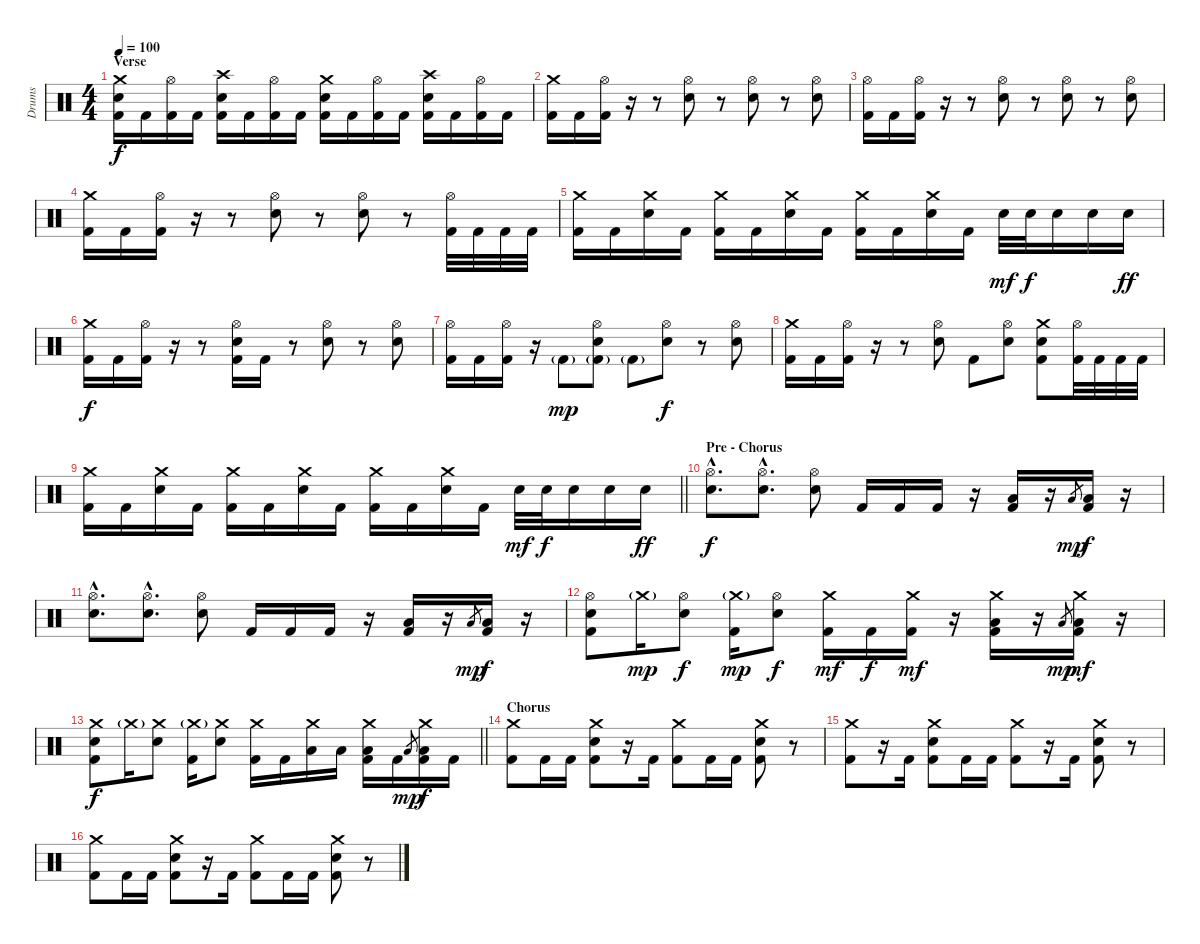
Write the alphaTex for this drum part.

\track ("Drums" "Drums") {instrument percussion}
\staff {score}
\articulation defaults
\ts (4 4)
\section ("" "Verse")
\tempo 100
\clef neutral
\ks c
("Crash medium (hit)" "Electric Snare (hit)" "Kick (hit) 2").16{dy f} "Kick (hit) 2".16 ("Hi-Hat (open)" "Kick (hit) 2").16 "Kick (hit) 2".16 ("Crash high (hit)" "Electric Snare (hit)" "Kick (hit) 2").16 "Kick (hit) 2".16 ("Hi-Hat (open)" "Kick (hit) 2").16 "Kick (hit) 2".16 ("Crash medium (hit)" "Electric Snare (hit)" "Kick (hit) 2").16 "Kick (hit) 2".16 ("Hi-Hat (open)" "Kick (hit) 2").16 "Kick (hit) 2".16 ("Crash high (hit)" "Electric Snare (hit)" "Kick (hit) 2").16 "Kick (hit) 2".16 ("Hi-Hat (open)" "Kick (hit) 2").16 "Kick (hit) 2".16 |
("Crash medium (hit)" "Kick (hit) 2").16 "Kick (hit) 2".16 ("Hi-Hat (open)" "Kick (hit) 2").16 r.16 r.8 ("Hi-Hat (open)" "Electric Snare (hit)").8 r.8 ("Hi-Hat (open)" "Electric Snare (hit)").8 r.8 ("Hi-Hat (open)" "Electric Snare (hit)").8 |
("Hi-Hat (open)" "Kick (hit) 2").16 "Kick (hit) 2".16 ("Hi-Hat (open)" "Kick (hit) 2").16 r.16 r.8 ("Hi-Hat (open)" "Electric Snare (hit)").8 r.8 ("Hi-Hat (open)" "Electric Snare (hit)").8 r.8 ("Hi-Hat (open)" "Electric Snare (hit)").8 |
("Crash medium (hit)" "Kick (hit) 2").16 "Kick (hit) 2".16 ("Hi-Hat (open)" "Kick (hit) 2").16 r.16 r.8 ("Hi-Hat (open)" "Electric Snare (hit)").8 r.8 ("Hi-Hat (open)" "Electric Snare (hit)").8 r.8 ("Hi-Hat (open)" "Kick (hit) 2").32 "Kick (hit) 2".32 "Kick (hit) 2".32 "Kick (hit) 2".32 |
("Crash medium (hit)" "Kick (hit) 2").16 "Kick (hit) 2".16 ("Crash medium (hit)" "Electric Snare (hit)").16 "Kick (hit) 2".16 ("Crash medium (hit)" "Kick (hit) 2").16 "Kick (hit) 2".16 ("Crash medium (hit)" "Electric Snare (hit)").16 "Kick (hit) 2".16 ("Crash medium (hit)" "Kick (hit) 2").16 "Kick (hit) 2".16 ("Crash medium (hit)" "Electric Snare (hit)").16 "Kick (hit) 2".16 "Electric Snare (hit)".32{dy mf} "Electric Snare (hit)".32{dy f} "Electric Snare (hit)".16 "Electric Snare (hit)".16 "Electric Snare (hit)".16{dy ff} |
("Crash medium (hit)" "Kick (hit) 2").16{dy f} "Kick (hit) 2".16 ("Hi-Hat (open)" "Kick (hit) 2").16 r.16 r.8 ("Hi-Hat (open)" "Electric Snare (hit)" "Kick (hit) 2").16 "Kick (hit) 2".16 r.8 ("Hi-Hat (open)" "Electric Snare (hit)").8 r.8 ("Hi-Hat (open)" "Electric Snare (hit)").8 |
("Hi-Hat (open)" "Kick (hit) 2").16 "Kick (hit) 2".16 ("Hi-Hat (open)" "Kick (hit) 2").16 r.16 "Kick (hit) 2"{g}.8{dy mp} ("Hi-Hat (open)" "Electric Snare (hit)" "Kick (hit) 2"{g}).8 "Kick (hit) 2"{g}.8 ("Hi-Hat (open)" "Electric Snare (hit)").8{dy f} r.8 ("Hi-Hat (open)" "Electric Snare (hit)").8 |
("Crash medium (hit)" "Kick (hit) 2").16 "Kick (hit) 2".16 ("Hi-Hat (open)" "Kick (hit) 2").16 r.16 r.8 ("Hi-Hat (open)" "Electric Snare (hit)").8 "Kick (hit) 2".8 ("Hi-Hat (open)" "Electric Snare (hit)").8 ("Crash medium (hit)" "Electric Snare (hit)" "Kick (hit) 2").8 ("Hi-Hat (open)" "Kick (hit) 2").32 "Kick (hit) 2".32 "Kick (hit) 2".32 "Kick (hit) 2".32 |
\barLineRight lightlight
("Crash medium (hit)" "Kick (hit) 2").16 "Kick (hit) 2".16 ("Crash medium (hit)" "Electric Snare (hit)").16 "Kick (hit) 2".16 ("Crash medium (hit)" "Kick (hit) 2").16 "Kick (hit) 2".16 ("Crash medium (hit)" "Electric Snare (hit)").16 "Kick (hit) 2".16 ("Crash medium (hit)" "Kick (hit) 2").16 "Kick (hit) 2".16 ("Crash medium (hit)" "Electric Snare (hit)").16 "Kick (hit) 2".16 "Electric Snare (hit)".32{dy mf} "Electric Snare (hit)".32{dy f} "Electric Snare (hit)".16 "Electric Snare (hit)".16 "Electric Snare (hit)".16{dy ff} |
\section ("" "Pre - Chorus")
("Hi-Hat (open)"{hac} "Electric Snare (hit)"{hac}).8{d dy f} ("Hi-Hat (open)"{hac} "Electric Snare (hit)"{hac}).8{d} ("Hi-Hat (open)" "Electric Snare (hit)").8 "Kick (hit) 2".16 "Kick (hit) 2".16 "Kick (hit) 2".16 r.16 ("Low Tom (hit)" "Kick (hit) 2").16 r.16 "Low Floor Tom (hit)".8{gr dy mp} ("Low Floor Tom (hit)" "Kick (hit) 2").16{dy f} r.16 |
("Hi-Hat (open)"{hac} "Electric Snare (hit)"{hac}).8{d} ("Hi-Hat (open)"{hac} "Electric Snare (hit)"{hac}).8{d} ("Hi-Hat (open)" "Electric Snare (hit)").8 "Kick (hit) 2".16 "Kick (hit) 2".16 "Kick (hit) 2".16 r.16 ("Low Tom (hit)" "Kick (hit) 2").16 r.16 "Low Floor Tom (hit)".8{gr dy mp} ("Low Floor Tom (hit)" "Kick (hit) 2").16{dy f} r.16 |
("Hi-Hat (open)" "Electric Snare (hit)" "Kick (hit) 2").8 "Crash medium (hit)"{g}.16{dy mp} ("Hi-Hat (open)" "Electric Snare (hit)").8{dy f} ("Crash medium (hit)"{g} "Kick (hit) 2").16{dy mp} ("Hi-Hat (open)" "Electric Snare (hit)").8{dy f} ("Crash medium (hit)" "Kick (hit) 2").16{dy mf} "Kick (hit) 2".16{dy f} ("Crash medium (hit)" "Kick (hit) 2").16{dy mf} r.16 ("Crash medium (hit)" "Low Tom (hit)" "Kick (hit) 2").16 r.16 "Low Floor Tom (hit)".8{gr dy mp} ("Crash medium (hit)" "Low Floor Tom (hit)" "Kick (hit) 2").16{dy mf} r.16 |
\barLineRight lightlight
("Crash medium (hit)" "Electric Snare (hit)" "Kick (hit) 2").8{dy f} "Crash medium (hit)"{g}.16 ("Crash medium (hit)" "Electric Snare (hit)").8 ("Crash medium (hit)"{g} "Kick (hit) 2").16 ("Crash medium (hit)" "Electric Snare (hit)").8 ("Crash medium (hit)" "Kick (hit) 2").16 "Kick (hit) 2".16 ("Crash medium (hit)" "Low Tom (hit)").16 "Low Tom (hit)".16 ("Crash medium (hit)" "Low Tom (hit)" "Kick (hit) 2").16 "Kick (hit) 2".16 "Low Floor Tom (hit)".8{gr dy mp} ("Crash medium (hit)" "Low Floor Tom (hit)" "Kick (hit) 2").16{dy f} "Kick (hit) 2".16 |
\section ("" "Chorus")
("Crash medium (hit)" "Kick (hit) 2").8 "Kick (hit) 2".16 "Kick (hit) 2".16 ("Crash medium (hit)" "Electric Snare (hit)" "Kick (hit) 2").8 r.16 "Kick (hit) 2".16 ("Crash medium (hit)" "Kick (hit) 2").8 "Kick (hit) 2".16 "Kick (hit) 2".16 ("Crash medium (hit)" "Electric Snare (hit)" "Kick (hit) 2").8 r.8 |
("Crash medium (hit)" "Kick (hit) 2").8 r.16 "Kick (hit) 2".16 ("Crash medium (hit)" "Electric Snare (hit)" "Kick (hit) 2").8 "Kick (hit) 2".16 "Kick (hit) 2".16 ("Crash medium (hit)" "Kick (hit) 2").8 r.16 "Kick (hit) 2".16 ("Crash medium (hit)" "Electric Snare (hit)" "Kick (hit) 2").8 r.8 |
("Crash medium (hit)" "Kick (hit) 2").8 "Kick (hit) 2".16 "Kick (hit) 2".16 ("Crash medium (hit)" "Electric Snare (hit)" "Kick (hit) 2").8 r.16 "Kick (hit) 2".16 ("Crash medium (hit)" "Kick (hit) 2").8 "Kick (hit) 2".16 "Kick (hit) 2".16 ("Crash medium (hit)" "Electric Snare (hit)" "Kick (hit) 2").8 r.8
